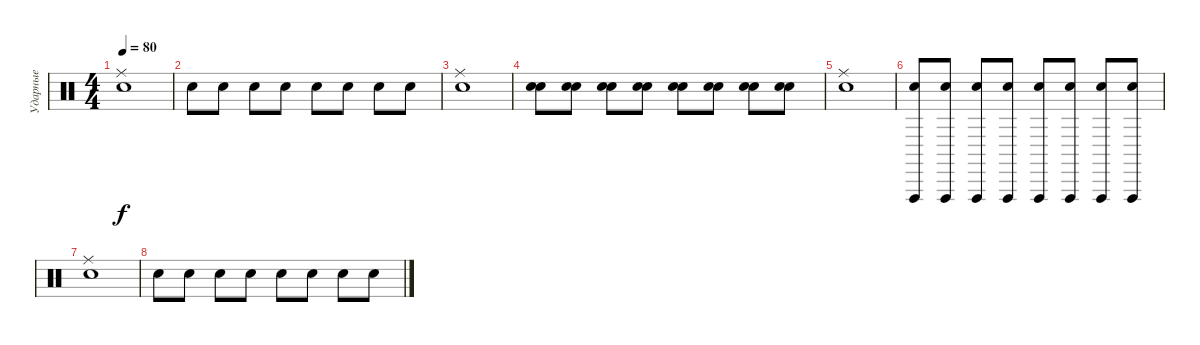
\track ("Ударные" "Ударные") {instrument percussion}
\staff {score}
\articulation defaults
\ts (4 4)
\tempo 80
\clef neutral
\ks c
("Ride (middle)" "Snare (hit) 2").1{dy f volume 5} |
"Snare (hit) 2".8 "Snare (hit) 2".8 "Snare (hit) 2".8 "Snare (hit) 2".8 "Snare (hit) 2".8 "Snare (hit) 2".8 "Snare (hit) 2".8 "Snare (hit) 2".8 |
("Ride (middle)" "Snare (hit) 2").1 |
("Snare (hit) 2" "Electric Snare (hit)").8 ("Snare (hit) 2" "Electric Snare (hit)").8 ("Snare (hit) 2" "Electric Snare (hit)").8 ("Snare (hit) 2" "Electric Snare (hit)").8 ("Snare (hit) 2" "Electric Snare (hit)").8 ("Snare (hit) 2" "Electric Snare (hit)").8 ("Snare (hit) 2" "Electric Snare (hit)").8 ("Snare (hit) 2" "Electric Snare (hit)").8 |
("Ride (middle)" "Snare (hit) 2").1 |
("Snare (hit) 2" "Vibraslap (hit)").8{volume 0} ("Snare (hit) 2" "Vibraslap (hit)").8 ("Snare (hit) 2" "Vibraslap (hit)").8 ("Snare (hit) 2" "Vibraslap (hit)").8 ("Snare (hit) 2" "Vibraslap (hit)").8 ("Snare (hit) 2" "Vibraslap (hit)").8 ("Snare (hit) 2" "Vibraslap (hit)").8 ("Snare (hit) 2" "Vibraslap (hit)").8 |
("Ride (middle)" "Snare (hit) 2").1 |
"Snare (hit) 2".8 "Snare (hit) 2".8 "Snare (hit) 2".8 "Snare (hit) 2".8 "Snare (hit) 2".8 "Snare (hit) 2".8 "Snare (hit) 2".8 "Snare (hit) 2".8
